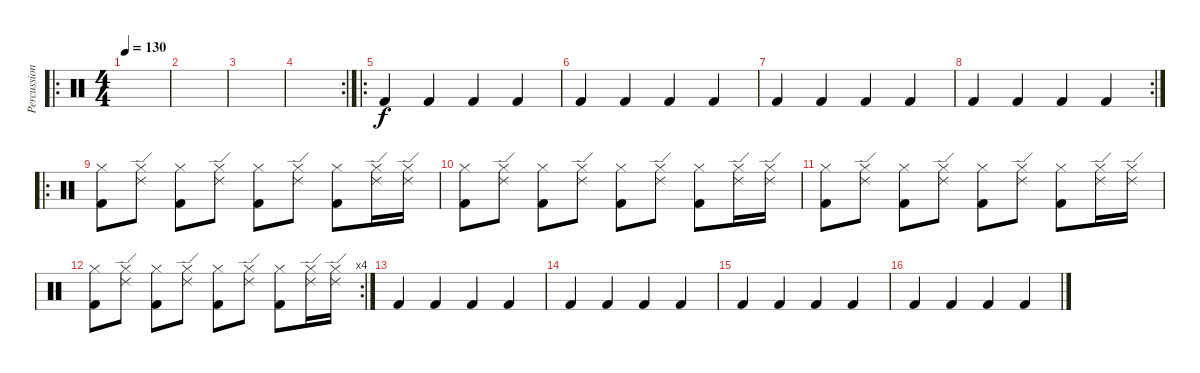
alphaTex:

\track ("Percussions" "Percussion") {instrument percussion}
\staff {score}
\articulation defaults
\ro
\ts (4 4)
\tempo 130
\clef neutral
\ks c
|
|
|
\rc 2
|
\ro "Kick (hit) 2".4 "Kick (hit) 2".4 "Kick (hit) 2".4 "Kick (hit) 2".4
|
"Kick (hit) 2".4 "Kick (hit) 2".4 "Kick (hit) 2".4 "Kick (hit) 2".4 |
"Kick (hit) 2".4 "Kick (hit) 2".4 "Kick (hit) 2".4 "Kick (hit) 2".4 |
\rc 2 "Kick (hit) 2".4 "Kick (hit) 2".4 "Kick (hit) 2".4 "Kick (hit) 2".4
|
\ro
("Kick (hit) 2" "Hi-Hat (closed)").8 ("Hi-Hat (closed)" "Ride (edge) 2").8 ("Kick (hit) 2" "Hi-Hat (closed)").8 ("Hi-Hat (closed)" "Ride (edge) 2").8 ("Kick (hit) 2" "Hi-Hat (closed)").8 ("Hi-Hat (closed)" "Ride (edge) 2").8 ("Kick (hit) 2" "Hi-Hat (closed)").8 ("Hi-Hat (closed)" "Ride (edge) 2").16 ("Hi-Hat (closed)" "Ride (edge) 2").16 |
("Kick (hit) 2" "Hi-Hat (closed)").8 ("Hi-Hat (closed)" "Ride (edge) 2").8 ("Kick (hit) 2" "Hi-Hat (closed)").8 ("Hi-Hat (closed)" "Ride (edge) 2").8 ("Kick (hit) 2" "Hi-Hat (closed)").8 ("Hi-Hat (closed)" "Ride (edge) 2").8 ("Kick (hit) 2" "Hi-Hat (closed)").8 ("Hi-Hat (closed)" "Ride (edge) 2").16 ("Hi-Hat (closed)" "Ride (edge) 2").16 |
("Kick (hit) 2" "Hi-Hat (closed)").8 ("Hi-Hat (closed)" "Ride (edge) 2").8 ("Kick (hit) 2" "Hi-Hat (closed)").8 ("Hi-Hat (closed)" "Ride (edge) 2").8 ("Kick (hit) 2" "Hi-Hat (closed)").8 ("Hi-Hat (closed)" "Ride (edge) 2").8 ("Kick (hit) 2" "Hi-Hat (closed)").8 ("Hi-Hat (closed)" "Ride (edge) 2").16 ("Hi-Hat (closed)" "Ride (edge) 2").16 |
\rc 4
("Kick (hit) 2" "Hi-Hat (closed)").8 ("Hi-Hat (closed)" "Ride (edge) 2").8 ("Kick (hit) 2" "Hi-Hat (closed)").8 ("Hi-Hat (closed)" "Ride (edge) 2").8 ("Kick (hit) 2" "Hi-Hat (closed)").8 ("Hi-Hat (closed)" "Ride (edge) 2").8 ("Kick (hit) 2" "Hi-Hat (closed)").8 ("Hi-Hat (closed)" "Ride (edge) 2").16 ("Hi-Hat (closed)" "Ride (edge) 2").16 |
"Kick (hit) 2".4 "Kick (hit) 2".4 "Kick (hit) 2".4 "Kick (hit) 2".4 |
"Kick (hit) 2".4 "Kick (hit) 2".4 "Kick (hit) 2".4 "Kick (hit) 2".4 |
"Kick (hit) 2".4 "Kick (hit) 2".4 "Kick (hit) 2".4 "Kick (hit) 2".4 |
"Kick (hit) 2".4 "Kick (hit) 2".4 "Kick (hit) 2".4 "Kick (hit) 2".4
